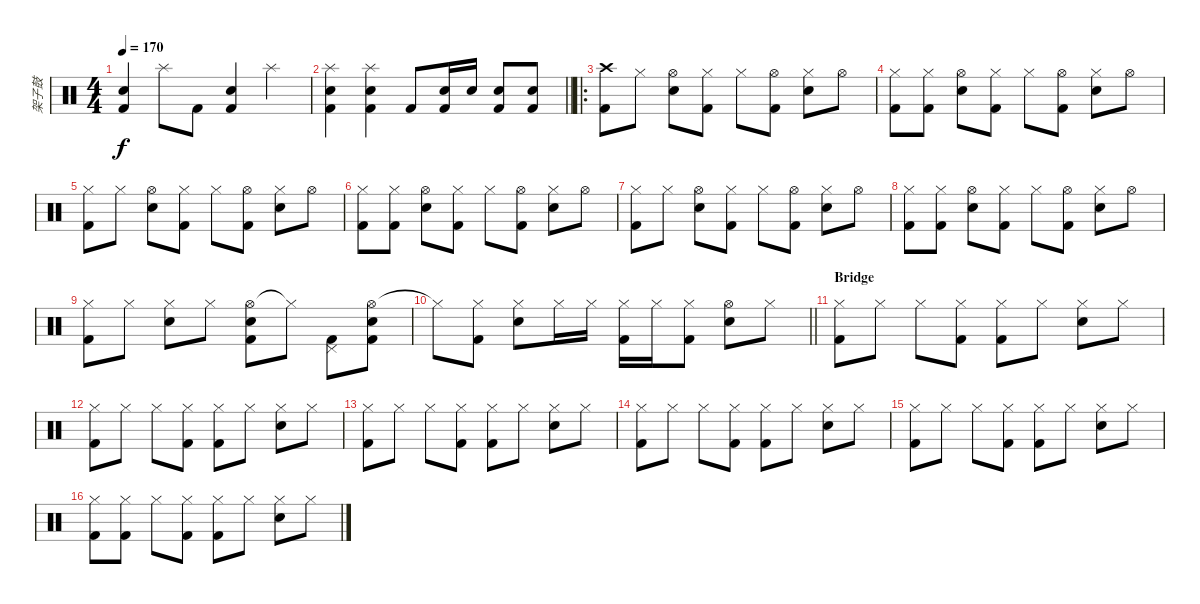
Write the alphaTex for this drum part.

\track ("架子鼓" "架子鼓") {instrument percussion}
\staff {score}
\articulation defaults
\ts (4 4)
\tempo 170
\clef neutral
\ks c
("Snare (hit) 2" "Kick (hit) 2").4{dy f} "Splash (hit)".8 "Kick (hit) 2".8 ("Snare (hit) 2" "Kick (hit) 2").4 "Splash (hit)".4 |
\barLineRight lightlight
("Splash (hit)" "Snare (hit) 2" "Kick (hit) 2").4 ("Splash (hit)" "Snare (hit) 2" "Kick (hit) 2").4 "Kick (hit) 2".8 ("Snare (hit) 2" "Kick (hit) 2").16 "Snare (hit) 2".16 ("Snare (hit) 2" "Kick (hit) 2").8 ("Snare (hit) 2" "Kick (hit) 2").8 |
\ro
("Crash high (hit)" "Kick (hit) 2").8 "Hi-Hat (closed)".8 ("Hi-Hat (open)" "Snare (hit) 2").8 ("Hi-Hat (closed)" "Kick (hit) 2").8 "Hi-Hat (closed)".8 ("Hi-Hat (open)" "Kick (hit) 2").8 ("Hi-Hat (closed)" "Snare (hit) 2").8 "Hi-Hat (open)".8 |
("Hi-Hat (closed)" "Kick (hit) 2").8 ("Hi-Hat (closed)" "Kick (hit) 2").8 ("Hi-Hat (open)" "Snare (hit) 2").8 ("Hi-Hat (closed)" "Kick (hit) 2").8 "Hi-Hat (closed)".8 ("Hi-Hat (open)" "Kick (hit) 2").8 ("Hi-Hat (closed)" "Snare (hit) 2").8 "Hi-Hat (open)".8 |
("Hi-Hat (closed)" "Kick (hit) 2").8 "Hi-Hat (closed)".8 ("Hi-Hat (open)" "Snare (hit) 2").8 ("Hi-Hat (closed)" "Kick (hit) 2").8 "Hi-Hat (closed)".8 ("Hi-Hat (open)" "Kick (hit) 2").8 ("Hi-Hat (closed)" "Snare (hit) 2").8 "Hi-Hat (open)".8 |
("Hi-Hat (closed)" "Kick (hit) 2").8 ("Hi-Hat (closed)" "Kick (hit) 2").8 ("Hi-Hat (open)" "Snare (hit) 2").8 ("Hi-Hat (closed)" "Kick (hit) 2").8 "Hi-Hat (closed)".8 ("Hi-Hat (open)" "Kick (hit) 2").8 ("Hi-Hat (closed)" "Snare (hit) 2").8 "Hi-Hat (open)".8 |
("Hi-Hat (closed)" "Kick (hit) 2").8 "Hi-Hat (closed)".8 ("Hi-Hat (open)" "Snare (hit) 2").8 ("Hi-Hat (closed)" "Kick (hit) 2").8 "Hi-Hat (closed)".8 ("Hi-Hat (open)" "Kick (hit) 2").8 ("Hi-Hat (closed)" "Snare (hit) 2").8 "Hi-Hat (open)".8 |
("Hi-Hat (closed)" "Kick (hit) 2").8 ("Hi-Hat (closed)" "Kick (hit) 2").8 ("Hi-Hat (open)" "Snare (hit) 2").8 ("Hi-Hat (closed)" "Kick (hit) 2").8 "Hi-Hat (closed)".8 ("Hi-Hat (open)" "Kick (hit) 2").8 ("Hi-Hat (closed)" "Snare (hit) 2").8 "Hi-Hat (open)".8 |
("Hi-Hat (closed)" "Kick (hit) 2").8 "Hi-Hat (closed)".8 ("Hi-Hat (closed)" "Snare (hit) 2").8 "Hi-Hat (closed)".8 ("Hi-Hat (open)" "Snare (hit) 2" "Kick (hit) 2").8 "Hi-Hat (closed)"{t}.8 ("Pedal Hi-Hat (hit)" "Kick (hit) 2").8 ("Hi-Hat (open)" "Snare (hit) 2" "Kick (hit) 2").8 |
\barLineRight lightlight "Hi-Hat (closed)"{t}.8
("Hi-Hat (closed)" "Kick (hit) 2").8 ("Hi-Hat (closed)" "Snare (hit) 2").8 "Hi-Hat (closed)".16 "Hi-Hat (closed)".16 ("Hi-Hat (closed)" "Kick (hit) 2").16 "Hi-Hat (closed)".16 ("Hi-Hat (closed)" "Kick (hit) 2").8 ("Hi-Hat (open)" "Snare (hit) 2").8 "Hi-Hat (closed)".8 |
\section ("" "Bridge")
("Hi-Hat (closed)" "Kick (hit) 2").8 "Hi-Hat (closed)".8 "Hi-Hat (closed)".8 ("Hi-Hat (closed)" "Kick (hit) 2").8 ("Hi-Hat (closed)" "Kick (hit) 2").8 "Hi-Hat (closed)".8 ("Hi-Hat (closed)" "Snare (hit) 2").8 "Hi-Hat (closed)".8 |
("Hi-Hat (closed)" "Kick (hit) 2").8 "Hi-Hat (closed)".8 "Hi-Hat (closed)".8 ("Hi-Hat (closed)" "Kick (hit) 2").8 ("Hi-Hat (closed)" "Kick (hit) 2").8 "Hi-Hat (closed)".8 ("Hi-Hat (closed)" "Snare (hit) 2").8 "Hi-Hat (closed)".8 |
("Hi-Hat (closed)" "Kick (hit) 2").8 "Hi-Hat (closed)".8 "Hi-Hat (closed)".8 ("Hi-Hat (closed)" "Kick (hit) 2").8 ("Hi-Hat (closed)" "Kick (hit) 2").8 "Hi-Hat (closed)".8 ("Hi-Hat (closed)" "Snare (hit) 2").8 "Hi-Hat (closed)".8 |
("Hi-Hat (closed)" "Kick (hit) 2").8 "Hi-Hat (closed)".8 "Hi-Hat (closed)".8 ("Hi-Hat (closed)" "Kick (hit) 2").8 ("Hi-Hat (closed)" "Kick (hit) 2").8 "Hi-Hat (closed)".8 ("Hi-Hat (closed)" "Snare (hit) 2").8 "Hi-Hat (closed)".8 |
("Hi-Hat (closed)" "Kick (hit) 2").8 "Hi-Hat (closed)".8 "Hi-Hat (closed)".8 ("Hi-Hat (closed)" "Kick (hit) 2").8 ("Hi-Hat (closed)" "Kick (hit) 2").8 "Hi-Hat (closed)".8 ("Hi-Hat (closed)" "Snare (hit) 2").8 "Hi-Hat (closed)".8 |
("Hi-Hat (closed)" "Kick (hit) 2").8 ("Hi-Hat (closed)" "Kick (hit) 2").8 "Hi-Hat (closed)".8 ("Hi-Hat (closed)" "Kick (hit) 2").8 ("Hi-Hat (closed)" "Kick (hit) 2").8 "Hi-Hat (closed)".8 ("Hi-Hat (closed)" "Snare (hit) 2").8 "Hi-Hat (closed)".8
